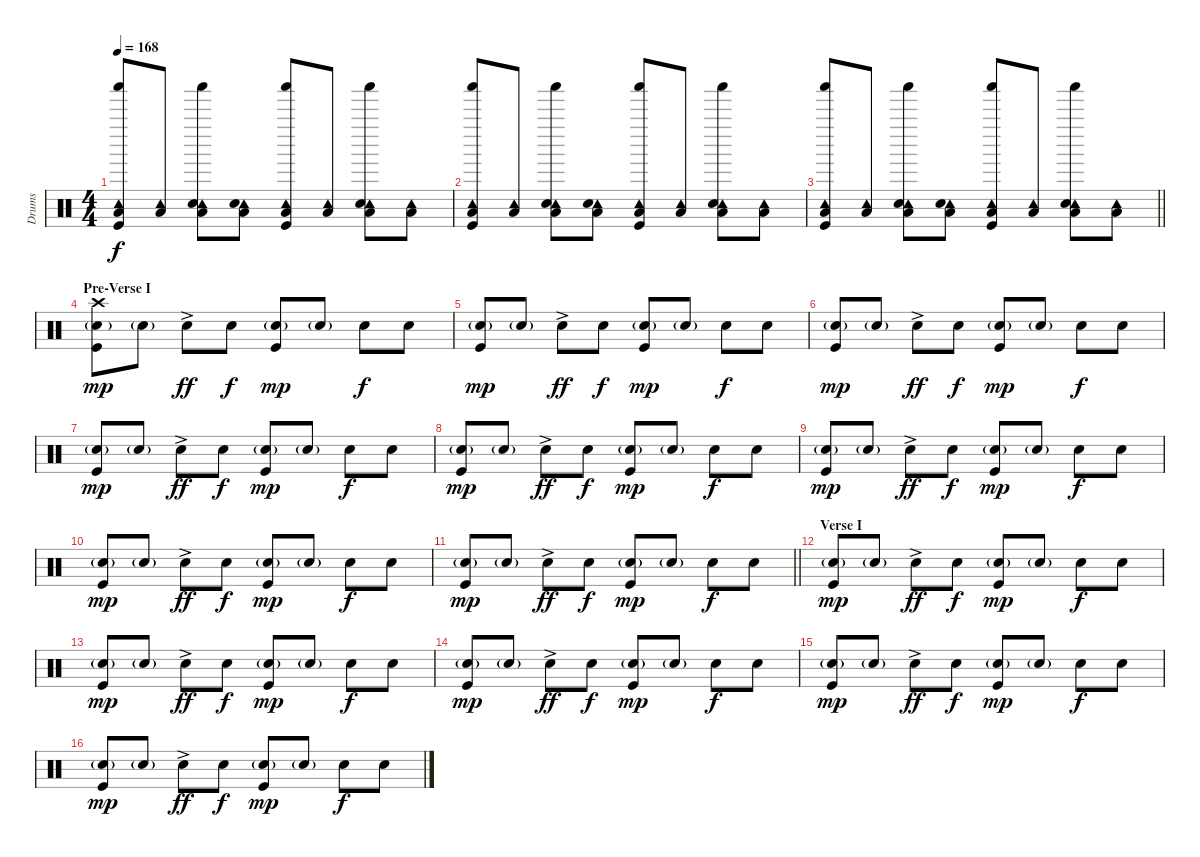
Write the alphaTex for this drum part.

\track ("Drums" "Drums") {instrument percussion}
\staff {score}
\articulation defaults
\ts (4 4)
\tempo 168
\clef neutral
\ks c
("Tambourine (hit)" "Shaker (hit)" "Low Floor Tom (hit)" "Kick (hit)").8{dy f} ("Tambourine (hit)" "Low Floor Tom (hit)").8 ("Tambourine (hit)" "Shaker (hit)" "Snare (hit) 2" "Low Floor Tom (hit)").8 ("Tambourine (hit)" "Snare (hit) 2" "Low Floor Tom (hit)").8 ("Tambourine (hit)" "Shaker (hit)" "Low Floor Tom (hit)" "Kick (hit)").8 ("Tambourine (hit)" "Low Floor Tom (hit)").8 ("Tambourine (hit)" "Shaker (hit)" "Snare (hit) 2" "Low Floor Tom (hit)").8 ("Tambourine (hit)" "Low Floor Tom (hit)").8 |
("Tambourine (hit)" "Shaker (hit)" "Low Floor Tom (hit)" "Kick (hit)").8 ("Tambourine (hit)" "Low Floor Tom (hit)").8 ("Tambourine (hit)" "Shaker (hit)" "Snare (hit) 2" "Low Floor Tom (hit)").8 ("Tambourine (hit)" "Snare (hit) 2" "Low Floor Tom (hit)").8 ("Tambourine (hit)" "Shaker (hit)" "Low Floor Tom (hit)" "Kick (hit)").8 ("Tambourine (hit)" "Low Floor Tom (hit)").8 ("Tambourine (hit)" "Shaker (hit)" "Snare (hit) 2" "Low Floor Tom (hit)").8 ("Tambourine (hit)" "Low Floor Tom (hit)").8 |
\barLineRight lightlight
("Tambourine (hit)" "Shaker (hit)" "Low Floor Tom (hit)" "Kick (hit)").8 ("Tambourine (hit)" "Low Floor Tom (hit)").8 ("Tambourine (hit)" "Shaker (hit)" "Snare (hit) 2" "Low Floor Tom (hit)").8 ("Tambourine (hit)" "Snare (hit) 2" "Low Floor Tom (hit)").8 ("Tambourine (hit)" "Shaker (hit)" "Low Floor Tom (hit)" "Kick (hit)").8 ("Tambourine (hit)" "Low Floor Tom (hit)").8 ("Tambourine (hit)" "Shaker (hit)" "Snare (hit) 2" "Low Floor Tom (hit)").8 ("Tambourine (hit)" "Low Floor Tom (hit)").8 |
\section ("" "Pre-Verse I")
("Crash high (hit)" "Snare (hit) 2"{g} "Kick (hit)").8{dy mp} "Snare (hit) 2"{g}.8 "Snare (hit) 2"{ac}.8{dy ff} "Snare (hit) 2".8{dy f} ("Snare (hit) 2"{g} "Kick (hit)").8{dy mp} "Snare (hit) 2"{g}.8 "Snare (hit) 2".8{dy f} "Snare (hit) 2".8 |
("Snare (hit) 2"{g} "Kick (hit)").8{dy mp} "Snare (hit) 2"{g}.8 "Snare (hit) 2"{ac}.8{dy ff} "Snare (hit) 2".8{dy f} ("Snare (hit) 2"{g} "Kick (hit)").8{dy mp} "Snare (hit) 2"{g}.8 "Snare (hit) 2".8{dy f} "Snare (hit) 2".8 |
("Snare (hit) 2"{g} "Kick (hit)").8{dy mp} "Snare (hit) 2"{g}.8 "Snare (hit) 2"{ac}.8{dy ff} "Snare (hit) 2".8{dy f} ("Snare (hit) 2"{g} "Kick (hit)").8{dy mp} "Snare (hit) 2"{g}.8 "Snare (hit) 2".8{dy f} "Snare (hit) 2".8 |
("Snare (hit) 2"{g} "Kick (hit)").8{dy mp} "Snare (hit) 2"{g}.8 "Snare (hit) 2"{ac}.8{dy ff} "Snare (hit) 2".8{dy f} ("Snare (hit) 2"{g} "Kick (hit)").8{dy mp} "Snare (hit) 2"{g}.8 "Snare (hit) 2".8{dy f} "Snare (hit) 2".8 |
("Snare (hit) 2"{g} "Kick (hit)").8{dy mp} "Snare (hit) 2"{g}.8 "Snare (hit) 2"{ac}.8{dy ff} "Snare (hit) 2".8{dy f} ("Snare (hit) 2"{g} "Kick (hit)").8{dy mp} "Snare (hit) 2"{g}.8 "Snare (hit) 2".8{dy f} "Snare (hit) 2".8 |
("Snare (hit) 2"{g} "Kick (hit)").8{dy mp} "Snare (hit) 2"{g}.8 "Snare (hit) 2"{ac}.8{dy ff} "Snare (hit) 2".8{dy f} ("Snare (hit) 2"{g} "Kick (hit)").8{dy mp} "Snare (hit) 2"{g}.8 "Snare (hit) 2".8{dy f} "Snare (hit) 2".8 |
("Snare (hit) 2"{g} "Kick (hit)").8{dy mp} "Snare (hit) 2"{g}.8 "Snare (hit) 2"{ac}.8{dy ff} "Snare (hit) 2".8{dy f} ("Snare (hit) 2"{g} "Kick (hit)").8{dy mp} "Snare (hit) 2"{g}.8 "Snare (hit) 2".8{dy f} "Snare (hit) 2".8 |
\barLineRight lightlight
("Snare (hit) 2"{g} "Kick (hit)").8{dy mp} "Snare (hit) 2"{g}.8 "Snare (hit) 2"{ac}.8{dy ff} "Snare (hit) 2".8{dy f} ("Snare (hit) 2"{g} "Kick (hit)").8{dy mp} "Snare (hit) 2"{g}.8 "Snare (hit) 2".8{dy f} "Snare (hit) 2".8 |
\section ("" "Verse I")
("Snare (hit) 2"{g} "Kick (hit)").8{dy mp} "Snare (hit) 2"{g}.8 "Snare (hit) 2"{ac}.8{dy ff} "Snare (hit) 2".8{dy f} ("Snare (hit) 2"{g} "Kick (hit)").8{dy mp} "Snare (hit) 2"{g}.8 "Snare (hit) 2".8{dy f} "Snare (hit) 2".8 |
("Snare (hit) 2"{g} "Kick (hit)").8{dy mp} "Snare (hit) 2"{g}.8 "Snare (hit) 2"{ac}.8{dy ff} "Snare (hit) 2".8{dy f} ("Snare (hit) 2"{g} "Kick (hit)").8{dy mp} "Snare (hit) 2"{g}.8 "Snare (hit) 2".8{dy f} "Snare (hit) 2".8 |
("Snare (hit) 2"{g} "Kick (hit)").8{dy mp} "Snare (hit) 2"{g}.8 "Snare (hit) 2"{ac}.8{dy ff} "Snare (hit) 2".8{dy f} ("Snare (hit) 2"{g} "Kick (hit)").8{dy mp} "Snare (hit) 2"{g}.8 "Snare (hit) 2".8{dy f} "Snare (hit) 2".8 |
("Snare (hit) 2"{g} "Kick (hit)").8{dy mp} "Snare (hit) 2"{g}.8 "Snare (hit) 2"{ac}.8{dy ff} "Snare (hit) 2".8{dy f} ("Snare (hit) 2"{g} "Kick (hit)").8{dy mp} "Snare (hit) 2"{g}.8 "Snare (hit) 2".8{dy f} "Snare (hit) 2".8 |
("Snare (hit) 2"{g} "Kick (hit)").8{dy mp} "Snare (hit) 2"{g}.8 "Snare (hit) 2"{ac}.8{dy ff} "Snare (hit) 2".8{dy f} ("Snare (hit) 2"{g} "Kick (hit)").8{dy mp} "Snare (hit) 2"{g}.8 "Snare (hit) 2".8{dy f} "Snare (hit) 2".8
